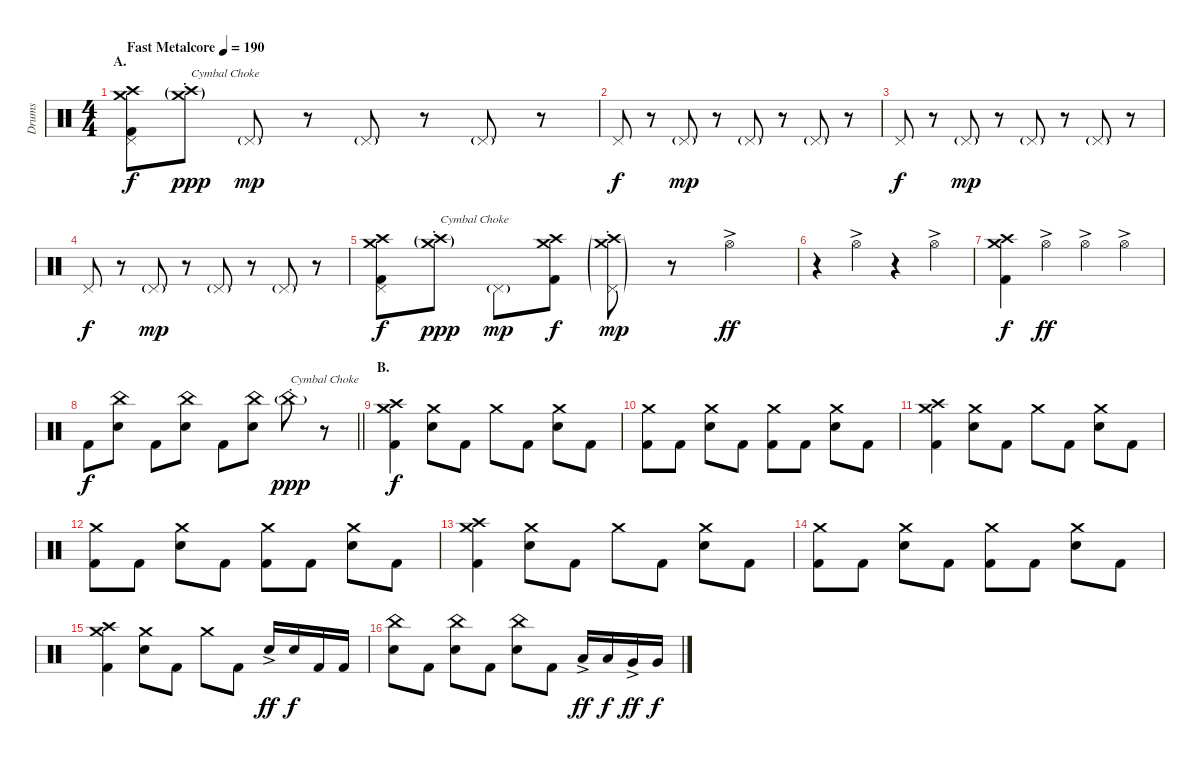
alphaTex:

\track ("Drums" "Drums") {instrument percussion}
\staff {score}
\articulation defaults
\ts (4 4)
\section ("" "A.")
\tempo (190 "Fast Metalcore")
\clef neutral
\ks c
("Crash medium (hit)" "Crash high (hit)" "Pedal Hi-Hat (hit)" "Kick (hit) 2").8{dy f} ("Crash medium (hit)"{g st} "Crash high (hit)"{g st}).8{txt "Cymbal Choke" dy ppp} "Pedal Hi-Hat (hit)"{g}.8{dy mp} r.8 "Pedal Hi-Hat (hit)"{g}.8 r.8 "Pedal Hi-Hat (hit)"{g}.8 r.8 |
"Pedal Hi-Hat (hit)".8{dy f} r.8 "Pedal Hi-Hat (hit)"{g}.8{dy mp} r.8 "Pedal Hi-Hat (hit)"{g}.8 r.8 "Pedal Hi-Hat (hit)"{g}.8 r.8 |
"Pedal Hi-Hat (hit)".8{dy f} r.8 "Pedal Hi-Hat (hit)"{g}.8{dy mp} r.8 "Pedal Hi-Hat (hit)"{g}.8 r.8 "Pedal Hi-Hat (hit)"{g}.8 r.8 |
"Pedal Hi-Hat (hit)".8{dy f} r.8 "Pedal Hi-Hat (hit)"{g}.8{dy mp} r.8 "Pedal Hi-Hat (hit)"{g}.8 r.8 "Pedal Hi-Hat (hit)"{g}.8 r.8 |
("Crash medium (hit)" "Crash high (hit)" "Pedal Hi-Hat (hit)" "Kick (hit) 2").8{dy f} ("Crash medium (hit)"{g st} "Crash high (hit)"{g st}).8{txt "Cymbal Choke" dy ppp} "Pedal Hi-Hat (hit)"{g}.8{dy mp} ("Crash medium (hit)" "Crash high (hit)" "Kick (hit) 2").8{dy f} ("Crash medium (hit)"{g st} "Crash high (hit)"{g st} "Pedal Hi-Hat (hit)"{g}).8{dy mp} r.8 "Hi-Hat (open)"{ac}.4{dy ff} |
r.4 "Hi-Hat (open)"{ac}.4 r.4 "Hi-Hat (open)"{ac}.4 |
("Crash medium (hit)" "Crash high (hit)" "Kick (hit) 2").4{dy f} "Hi-Hat (open)"{ac}.4{dy ff} "Hi-Hat (open)"{ac}.4 "Hi-Hat (open)"{ac}.4 |
\barLineRight lightlight "Kick (hit) 2".8{dy f}
("China (hit)" "Electric Snare (hit)").8 "Kick (hit) 2".8 ("China (hit)" "Electric Snare (hit)").8 "Kick (hit) 2".8 ("China (hit)" "Electric Snare (hit)").8 "China (hit)"{g st}.8{txt "Cymbal Choke" dy ppp} r.8 |
\section ("" "B.")
("Crash medium (hit)" "Crash high (hit)" "Kick (hit) 2").4{dy f} ("Crash medium (hit)" "Electric Snare (hit)").8 "Kick (hit) 2".8 "Crash medium (hit)".8 "Kick (hit) 2".8 ("Crash medium (hit)" "Electric Snare (hit)").8 "Kick (hit) 2".8 |
("Crash medium (hit)" "Kick (hit) 2").8 "Kick (hit) 2".8 ("Crash medium (hit)" "Electric Snare (hit)").8 "Kick (hit) 2".8 ("Crash medium (hit)" "Kick (hit) 2").8 "Kick (hit) 2".8 ("Crash medium (hit)" "Electric Snare (hit)").8 "Kick (hit) 2".8 |
("Crash medium (hit)" "Crash high (hit)" "Kick (hit) 2").4 ("Crash medium (hit)" "Electric Snare (hit)").8 "Kick (hit) 2".8 "Crash medium (hit)".8 "Kick (hit) 2".8 ("Crash medium (hit)" "Electric Snare (hit)").8 "Kick (hit) 2".8 |
("Crash medium (hit)" "Kick (hit) 2").8 "Kick (hit) 2".8 ("Crash medium (hit)" "Electric Snare (hit)").8 "Kick (hit) 2".8 ("Crash medium (hit)" "Kick (hit) 2").8 "Kick (hit) 2".8 ("Crash medium (hit)" "Electric Snare (hit)").8 "Kick (hit) 2".8 |
("Crash medium (hit)" "Crash high (hit)" "Kick (hit) 2").4 ("Crash medium (hit)" "Electric Snare (hit)").8 "Kick (hit) 2".8 "Crash medium (hit)".8 "Kick (hit) 2".8 ("Crash medium (hit)" "Electric Snare (hit)").8 "Kick (hit) 2".8 |
("Crash medium (hit)" "Kick (hit) 2").8 "Kick (hit) 2".8 ("Crash medium (hit)" "Electric Snare (hit)").8 "Kick (hit) 2".8 ("Crash medium (hit)" "Kick (hit) 2").8 "Kick (hit) 2".8 ("Crash medium (hit)" "Electric Snare (hit)").8 "Kick (hit) 2".8 |
("Crash medium (hit)" "Crash high (hit)" "Kick (hit) 2").4 ("Crash medium (hit)" "Electric Snare (hit)").8 "Kick (hit) 2".8 "Crash medium (hit)".8 "Kick (hit) 2".8 "Electric Snare (hit)"{ac}.16{dy ff} "Electric Snare (hit)".16{dy f} "Kick (hit) 2".16 "Kick (hit) 2".16 |
("China (hit)" "Electric Snare (hit)").8 "Kick (hit) 2".8 ("China (hit)" "Electric Snare (hit)").8 "Kick (hit) 2".8 ("China (hit)" "Electric Snare (hit)").8 "Kick (hit) 2".8 "Low Tom (hit)"{ac}.16{dy ff} "Low Tom (hit)".16{dy f} "Very Low Tom (hit)"{ac}.16{dy ff} "Very Low Tom (hit)".16{dy f}
